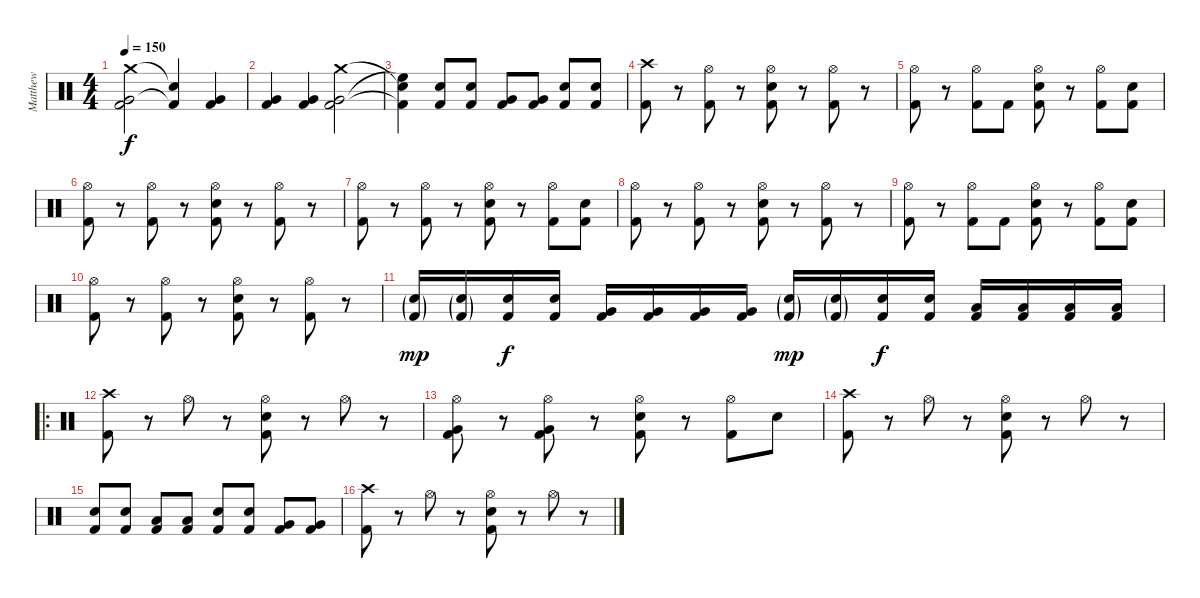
\track ("Matthew" "Matthew") {instrument percussion}
\staff {score}
\articulation defaults
\ts (4 4)
\tempo 150
\clef neutral
\ks c
("Crash medium (hit)" "Very Low Tom (hit)" "Kick (hit) 2").2{dy f} ("Snare (hit)"{t} "Kick (hit) 2"{t}).4 ("Very Low Tom (hit)" "Kick (hit) 2").4 |
("Very Low Tom (hit)" "Kick (hit) 2").4 ("Very Low Tom (hit)" "Kick (hit) 2").4 ("Crash medium (hit)" "Very Low Tom (hit)" "Kick (hit) 2").2 |
("Snare (hit)"{t} "High Floor Tom (hit)"{t} "Kick (hit) 2"{t}).4 ("Snare (hit) 2" "Kick (hit) 2").8 ("Snare (hit) 2" "Kick (hit) 2").8 ("Very Low Tom (hit)" "Kick (hit) 2").8 ("Very Low Tom (hit)" "Kick (hit) 2").8 ("Snare (hit) 2" "Kick (hit) 2").8 ("Snare (hit) 2" "Kick (hit) 2").8 |
("Crash high (hit)" "Kick (hit) 2").8 r.8 ("Hi-Hat (open)" "Kick (hit) 2").8 r.8 ("Hi-Hat (open)" "Snare (hit) 2" "Kick (hit) 2").8 r.8 ("Hi-Hat (open)" "Kick (hit) 2").8 r.8 |
("Hi-Hat (open)" "Kick (hit) 2").8 r.8 ("Hi-Hat (open)" "Kick (hit) 2").8 "Kick (hit) 2".8 ("Hi-Hat (open)" "Snare (hit) 2" "Kick (hit) 2").8 r.8 ("Hi-Hat (open)" "Kick (hit) 2").8 ("Snare (hit) 2" "Kick (hit) 2").8 |
("Hi-Hat (open)" "Kick (hit) 2").8 r.8 ("Hi-Hat (open)" "Kick (hit) 2").8 r.8 ("Hi-Hat (open)" "Snare (hit) 2" "Kick (hit) 2").8 r.8 ("Hi-Hat (open)" "Kick (hit) 2").8 r.8 |
("Hi-Hat (open)" "Kick (hit) 2").8 r.8 ("Hi-Hat (open)" "Kick (hit) 2").8 r.8 ("Hi-Hat (open)" "Snare (hit) 2" "Kick (hit) 2").8 r.8 ("Hi-Hat (open)" "Kick (hit) 2").8 ("Snare (hit) 2" "Kick (hit) 2").8 |
("Hi-Hat (open)" "Kick (hit) 2").8 r.8 ("Hi-Hat (open)" "Kick (hit) 2").8 r.8 ("Hi-Hat (open)" "Snare (hit) 2" "Kick (hit) 2").8 r.8 ("Hi-Hat (open)" "Kick (hit) 2").8 r.8 |
("Hi-Hat (open)" "Kick (hit) 2").8 r.8 ("Hi-Hat (open)" "Kick (hit) 2").8 "Kick (hit) 2".8 ("Hi-Hat (open)" "Snare (hit) 2" "Kick (hit) 2").8 r.8 ("Hi-Hat (open)" "Kick (hit) 2").8 ("Snare (hit) 2" "Kick (hit) 2").8 |
("Hi-Hat (open)" "Kick (hit) 2").8 r.8 ("Hi-Hat (open)" "Kick (hit) 2").8 r.8 ("Hi-Hat (open)" "Snare (hit) 2" "Kick (hit) 2").8 r.8 ("Hi-Hat (open)" "Kick (hit) 2").8 r.8 |
("Electric Snare (hit)"{g} "Kick (hit) 2"{g}).16{dy mp} ("Electric Snare (hit)"{g} "Kick (hit) 2"{g}).16 ("Electric Snare (hit)" "Kick (hit) 2").16{dy f} ("Electric Snare (hit)" "Kick (hit) 2").16 ("Very Low Tom (hit)" "Kick (hit) 2").16 ("Very Low Tom (hit)" "Kick (hit) 2").16 ("Very Low Tom (hit)" "Kick (hit) 2").16 ("Very Low Tom (hit)" "Kick (hit) 2").16 ("Electric Snare (hit)"{g} "Kick (hit) 2"{g}).16{dy mp} ("Electric Snare (hit)"{g} "Kick (hit) 2"{g}).16 ("Electric Snare (hit)" "Kick (hit) 2").16{dy f} ("Electric Snare (hit)" "Kick (hit) 2").16 ("Low Floor Tom (hit)" "Kick (hit) 2").16 ("Low Floor Tom (hit)" "Kick (hit) 2").16 ("Low Floor Tom (hit)" "Kick (hit) 2").16 ("Low Floor Tom (hit)" "Kick (hit) 2").16 |
\ro
("Crash high (hit)" "Kick (hit) 2").8 r.8 "Hi-Hat (open)".8 r.8 ("Hi-Hat (open)" "Snare (hit) 2" "Kick (hit) 2").8 r.8 "Hi-Hat (open)".8 r.8 |
("Hi-Hat (open)" "Very Low Tom (hit)" "Kick (hit) 2").8 r.8 ("Hi-Hat (open)" "Very Low Tom (hit)" "Kick (hit) 2").8 r.8 ("Hi-Hat (open)" "Snare (hit) 2" "Kick (hit) 2").8 r.8 ("Hi-Hat (open)" "Kick (hit) 2").8 "Snare (hit) 2".8 |
("Crash high (hit)" "Kick (hit) 2").8 r.8 "Hi-Hat (open)".8 r.8 ("Hi-Hat (open)" "Snare (hit) 2" "Kick (hit) 2").8 r.8 "Hi-Hat (open)".8 r.8 |
("Electric Snare (hit)" "Kick (hit) 2").8 ("Electric Snare (hit)" "Kick (hit) 2").8 ("Low Tom (hit)" "Kick (hit) 2").8 ("Low Tom (hit)" "Kick (hit) 2").8 ("Electric Snare (hit)" "Kick (hit) 2").8 ("Electric Snare (hit)" "Kick (hit) 2").8 ("Very Low Tom (hit)" "Kick (hit) 2").8 ("Very Low Tom (hit)" "Kick (hit) 2").8 |
("Crash high (hit)" "Kick (hit) 2").8 r.8 "Hi-Hat (open)".8 r.8 ("Hi-Hat (open)" "Snare (hit) 2" "Kick (hit) 2").8 r.8 "Hi-Hat (open)".8 r.8
